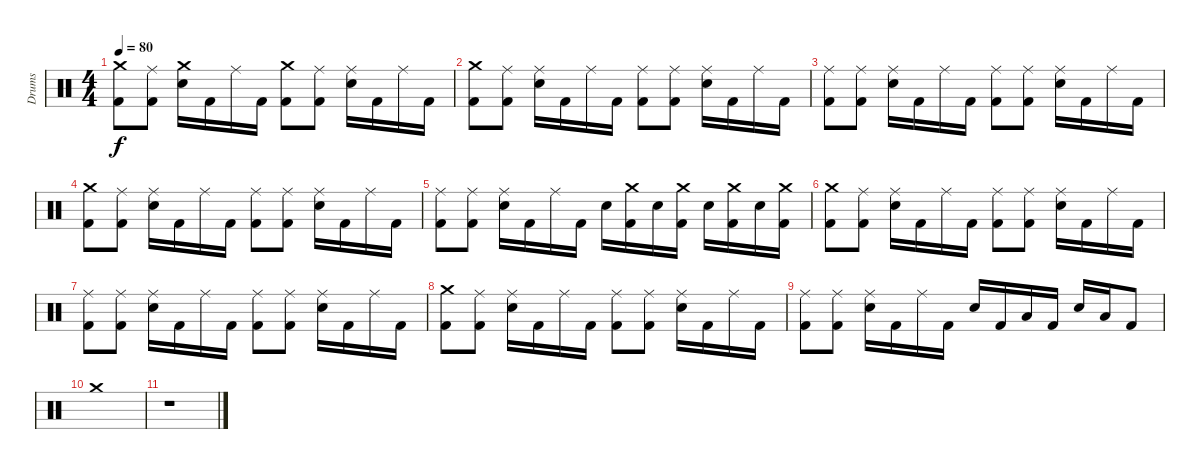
\track ("Drums" "Drums") {instrument percussion}
\staff {score}
\articulation defaults
\ts (4 4)
\tempo 80
\clef neutral
\ks c
("Crash medium (hit)" "Kick (hit) 2").8{dy f} ("Ride (middle)" "Kick (hit) 2").8 ("Crash medium (hit)" "Electric Snare (hit)").16 "Kick (hit) 2".16 "Ride (middle)".16 "Kick (hit) 2".16 ("Crash medium (hit)" "Kick (hit) 2").8 ("Ride (middle)" "Kick (hit) 2").8 ("Ride (middle)" "Electric Snare (hit)").16 "Kick (hit) 2".16 "Ride (middle)".16 "Kick (hit) 2".16 |
("Crash medium (hit)" "Kick (hit) 2").8 ("Ride (middle)" "Kick (hit) 2").8 ("Ride (middle)" "Electric Snare (hit)").16 "Kick (hit) 2".16 "Ride (middle)".16 "Kick (hit) 2".16 ("Ride (middle)" "Kick (hit) 2").8 ("Ride (middle)" "Kick (hit) 2").8 ("Ride (middle)" "Electric Snare (hit)").16 "Kick (hit) 2".16 "Ride (middle)".16 "Kick (hit) 2".16 |
("Ride (middle)" "Kick (hit) 2").8 ("Ride (middle)" "Kick (hit) 2").8 ("Ride (middle)" "Electric Snare (hit)").16 "Kick (hit) 2".16 "Ride (middle)".16 "Kick (hit) 2".16 ("Ride (middle)" "Kick (hit) 2").8 ("Ride (middle)" "Kick (hit) 2").8 ("Ride (middle)" "Electric Snare (hit)").16 "Kick (hit) 2".16 "Ride (middle)".16 "Kick (hit) 2".16 |
("Crash medium (hit)" "Kick (hit) 2").8 ("Ride (middle)" "Kick (hit) 2").8 ("Ride (middle)" "Electric Snare (hit)").16 "Kick (hit) 2".16 "Ride (middle)".16 "Kick (hit) 2".16 ("Ride (middle)" "Kick (hit) 2").8 ("Ride (middle)" "Kick (hit) 2").8 ("Ride (middle)" "Electric Snare (hit)").16 "Kick (hit) 2".16 "Ride (middle)".16 "Kick (hit) 2".16 |
("Ride (middle)" "Kick (hit) 2").8 ("Ride (middle)" "Kick (hit) 2").8 ("Ride (middle)" "Electric Snare (hit)").16 "Kick (hit) 2".16 "Ride (middle)".16 "Kick (hit) 2".16 "Electric Snare (hit)".16 ("Crash medium (hit)" "Kick (hit) 2").16 "Electric Snare (hit)".16 ("Crash medium (hit)" "Kick (hit) 2").16 "Electric Snare (hit)".16 ("Crash medium (hit)" "Kick (hit) 2").16 "Electric Snare (hit)".16 ("Crash medium (hit)" "Kick (hit) 2").16 |
("Crash medium (hit)" "Kick (hit) 2").8 ("Ride (middle)" "Kick (hit) 2").8 ("Ride (middle)" "Electric Snare (hit)").16 "Kick (hit) 2".16 "Ride (middle)".16 "Kick (hit) 2".16 ("Ride (middle)" "Kick (hit) 2").8 ("Ride (middle)" "Kick (hit) 2").8 ("Ride (middle)" "Electric Snare (hit)").16 "Kick (hit) 2".16 "Ride (middle)".16 "Kick (hit) 2".16 |
("Ride (middle)" "Kick (hit) 2").8 ("Ride (middle)" "Kick (hit) 2").8 ("Ride (middle)" "Electric Snare (hit)").16 "Kick (hit) 2".16 "Ride (middle)".16 "Kick (hit) 2".16 ("Ride (middle)" "Kick (hit) 2").8 ("Ride (middle)" "Kick (hit) 2").8 ("Ride (middle)" "Electric Snare (hit)").16 "Kick (hit) 2".16 "Ride (middle)".16 "Kick (hit) 2".16 |
("Crash medium (hit)" "Kick (hit) 2").8 ("Ride (middle)" "Kick (hit) 2").8 ("Ride (middle)" "Electric Snare (hit)").16 "Kick (hit) 2".16 "Ride (middle)".16 "Kick (hit) 2".16 ("Ride (middle)" "Kick (hit) 2").8 ("Ride (middle)" "Kick (hit) 2").8 ("Ride (middle)" "Electric Snare (hit)").16 "Kick (hit) 2".16 "Ride (middle)".16 "Kick (hit) 2".16 |
("Ride (middle)" "Kick (hit) 2").8 ("Ride (middle)" "Kick (hit) 2").8 ("Ride (middle)" "Electric Snare (hit)").16 "Kick (hit) 2".16 "Ride (middle)".16 "Kick (hit) 2".16 "Electric Snare (hit)".16 "Kick (hit) 2".16 "Low Floor Tom (hit)".16 "Kick (hit) 2".16 "Electric Snare (hit)".16 "Low Floor Tom (hit)".16 "Kick (hit) 2".8 |
"Crash medium (hit)".1 |
r.1
